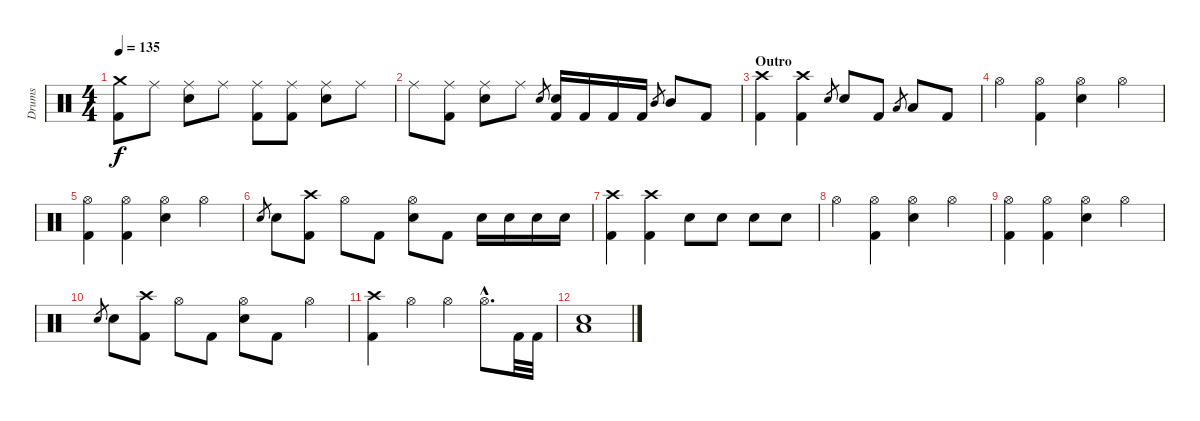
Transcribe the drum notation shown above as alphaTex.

\track ("Drums" "Drums") {instrument percussion}
\staff {score}
\articulation defaults
\ts (4 4)
\tempo 135
\clef neutral
\ks c
("Crash medium (hit)" "Kick (hit) 2").8{dy f} "Ride (middle)".8 ("Ride (middle)" "Electric Snare (hit)").8 "Ride (middle)".8 ("Ride (middle)" "Kick (hit) 2").8 ("Ride (middle)" "Kick (hit) 2").8 ("Ride (middle)" "Electric Snare (hit)").8 "Ride (middle)".8 |
"Ride (middle)".8 ("Ride (middle)" "Kick (hit) 2").8 ("Ride (middle)" "Electric Snare (hit)").8 "Ride (middle)".8 "Electric Snare (hit)".8{gr} ("Electric Snare (hit)" "Kick (hit) 2").16 "Kick (hit) 2".16 "Kick (hit) 2".16 "Kick (hit) 2".16 "Mid Tom (hit)".8{gr} "Mid Tom (hit)".8 "Kick (hit) 2".8 |
\section ("" "Outro")
("Crash high (hit)" "Kick (hit) 2").4 ("Crash high (hit)" "Kick (hit) 2").4 "Electric Snare (hit)".8{gr} "Electric Snare (hit)".8 "Kick (hit) 2".8 "Low Tom (hit)".8{gr} "Low Tom (hit)".8 "Kick (hit) 2".8 |
"Hi-Hat (open)".4 ("Hi-Hat (open)" "Kick (hit) 2").4 ("Hi-Hat (open)" "Electric Snare (hit)").4 "Hi-Hat (open)".4 |
("Hi-Hat (open)" "Kick (hit) 2").4 ("Hi-Hat (open)" "Kick (hit) 2").4 ("Hi-Hat (open)" "Electric Snare (hit)").4 "Hi-Hat (open)".4 |
"Electric Snare (hit)".8{gr} "Electric Snare (hit)".8 ("Crash high (hit)" "Kick (hit) 2").8 "Hi-Hat (open)".8 "Kick (hit) 2".8 ("Hi-Hat (open)" "Electric Snare (hit)").8 "Kick (hit) 2".8 "Electric Snare (hit)".16 "Electric Snare (hit)".16 "Electric Snare (hit)".16 "Electric Snare (hit)".16 |
("Crash high (hit)" "Kick (hit) 2").4 ("Crash high (hit)" "Kick (hit) 2").4 "Electric Snare (hit)".8 "Electric Snare (hit)".8 "Electric Snare (hit)".8 "Electric Snare (hit)".8 |
"Hi-Hat (open)".4 ("Hi-Hat (open)" "Kick (hit) 2").4 ("Hi-Hat (open)" "Electric Snare (hit)").4 "Hi-Hat (open)".4 |
("Hi-Hat (open)" "Kick (hit) 2").4 ("Hi-Hat (open)" "Kick (hit) 2").4 ("Hi-Hat (open)" "Electric Snare (hit)").4 "Hi-Hat (open)".4 |
"Electric Snare (hit)".8{gr} "Electric Snare (hit)".8 ("Crash high (hit)" "Kick (hit) 2").8 "Hi-Hat (open)".8 "Kick (hit) 2".8 ("Hi-Hat (open)" "Electric Snare (hit)").8 "Kick (hit) 2".8 "Hi-Hat (open)".4 |
("Crash high (hit)" "Kick (hit) 2").4 "Hi-Hat (open)".4 "Hi-Hat (open)".4 "Hi-Hat (open)"{hac}.8{d} "Kick (hit) 2".32 "Kick (hit) 2".32 |
("Electric Snare (hit)" "Low Floor Tom (hit)").1
